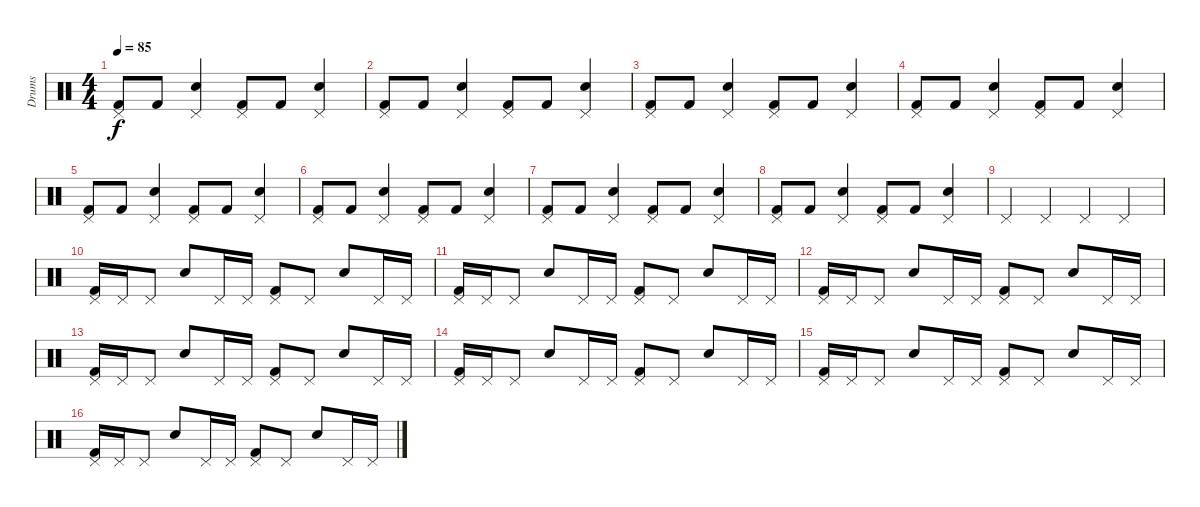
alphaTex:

\track ("Drums" "Drums") {instrument percussion}
\staff {score}
\articulation defaults
\ts (4 4)
\tempo 85
\clef neutral
\ks c
("Pedal Hi-Hat (hit)" "Kick (hit) 2").8{dy f} "Kick (hit) 2".8 ("Pedal Hi-Hat (hit)" "Snare (hit) 2").4 ("Pedal Hi-Hat (hit)" "Kick (hit) 2").8 "Kick (hit) 2".8 ("Pedal Hi-Hat (hit)" "Snare (hit) 2").4 |
("Pedal Hi-Hat (hit)" "Kick (hit) 2").8 "Kick (hit) 2".8 ("Pedal Hi-Hat (hit)" "Snare (hit) 2").4 ("Pedal Hi-Hat (hit)" "Kick (hit) 2").8 "Kick (hit) 2".8 ("Pedal Hi-Hat (hit)" "Snare (hit) 2").4 |
("Pedal Hi-Hat (hit)" "Kick (hit) 2").8 "Kick (hit) 2".8 ("Pedal Hi-Hat (hit)" "Snare (hit) 2").4 ("Pedal Hi-Hat (hit)" "Kick (hit) 2").8 "Kick (hit) 2".8 ("Pedal Hi-Hat (hit)" "Snare (hit) 2").4 |
("Pedal Hi-Hat (hit)" "Kick (hit) 2").8 "Kick (hit) 2".8 ("Pedal Hi-Hat (hit)" "Snare (hit) 2").4 ("Pedal Hi-Hat (hit)" "Kick (hit) 2").8 "Kick (hit) 2".8 ("Pedal Hi-Hat (hit)" "Snare (hit) 2").4 |
("Pedal Hi-Hat (hit)" "Kick (hit) 2").8 "Kick (hit) 2".8 ("Pedal Hi-Hat (hit)" "Snare (hit) 2").4 ("Pedal Hi-Hat (hit)" "Kick (hit) 2").8 "Kick (hit) 2".8 ("Pedal Hi-Hat (hit)" "Snare (hit) 2").4 |
("Pedal Hi-Hat (hit)" "Kick (hit) 2").8 "Kick (hit) 2".8 ("Pedal Hi-Hat (hit)" "Snare (hit) 2").4 ("Pedal Hi-Hat (hit)" "Kick (hit) 2").8 "Kick (hit) 2".8 ("Pedal Hi-Hat (hit)" "Snare (hit) 2").4 |
("Pedal Hi-Hat (hit)" "Kick (hit) 2").8 "Kick (hit) 2".8 ("Pedal Hi-Hat (hit)" "Snare (hit) 2").4 ("Pedal Hi-Hat (hit)" "Kick (hit) 2").8 "Kick (hit) 2".8 ("Pedal Hi-Hat (hit)" "Snare (hit) 2").4 |
("Pedal Hi-Hat (hit)" "Kick (hit) 2").8 "Kick (hit) 2".8 ("Pedal Hi-Hat (hit)" "Snare (hit) 2").4 ("Pedal Hi-Hat (hit)" "Kick (hit) 2").8 "Kick (hit) 2".8 ("Pedal Hi-Hat (hit)" "Snare (hit) 2").4 |
"Pedal Hi-Hat (hit)".4 "Pedal Hi-Hat (hit)".4 "Pedal Hi-Hat (hit)".4 "Pedal Hi-Hat (hit)".4 |
("Pedal Hi-Hat (hit)" "Kick (hit) 2").16 "Pedal Hi-Hat (hit)".16 "Pedal Hi-Hat (hit)".8 "Snare (hit) 2".8 "Pedal Hi-Hat (hit)".16 "Pedal Hi-Hat (hit)".16 ("Pedal Hi-Hat (hit)" "Kick (hit) 2").8 "Pedal Hi-Hat (hit)".8 "Snare (hit) 2".8 "Pedal Hi-Hat (hit)".16 "Pedal Hi-Hat (hit)".16 |
("Pedal Hi-Hat (hit)" "Kick (hit) 2").16 "Pedal Hi-Hat (hit)".16 "Pedal Hi-Hat (hit)".8 "Snare (hit) 2".8 "Pedal Hi-Hat (hit)".16 "Pedal Hi-Hat (hit)".16 ("Pedal Hi-Hat (hit)" "Kick (hit) 2").8 "Pedal Hi-Hat (hit)".8 "Snare (hit) 2".8 "Pedal Hi-Hat (hit)".16 "Pedal Hi-Hat (hit)".16 |
("Pedal Hi-Hat (hit)" "Kick (hit) 2").16 "Pedal Hi-Hat (hit)".16 "Pedal Hi-Hat (hit)".8 "Snare (hit) 2".8 "Pedal Hi-Hat (hit)".16 "Pedal Hi-Hat (hit)".16 ("Pedal Hi-Hat (hit)" "Kick (hit) 2").8 "Pedal Hi-Hat (hit)".8 "Snare (hit) 2".8 "Pedal Hi-Hat (hit)".16 "Pedal Hi-Hat (hit)".16 |
("Pedal Hi-Hat (hit)" "Kick (hit) 2").16 "Pedal Hi-Hat (hit)".16 "Pedal Hi-Hat (hit)".8 "Snare (hit) 2".8 "Pedal Hi-Hat (hit)".16 "Pedal Hi-Hat (hit)".16 ("Pedal Hi-Hat (hit)" "Kick (hit) 2").8 "Pedal Hi-Hat (hit)".8 "Snare (hit) 2".8 "Pedal Hi-Hat (hit)".16 "Pedal Hi-Hat (hit)".16 |
("Pedal Hi-Hat (hit)" "Kick (hit) 2").16 "Pedal Hi-Hat (hit)".16 "Pedal Hi-Hat (hit)".8 "Snare (hit) 2".8 "Pedal Hi-Hat (hit)".16 "Pedal Hi-Hat (hit)".16 ("Pedal Hi-Hat (hit)" "Kick (hit) 2").8 "Pedal Hi-Hat (hit)".8 "Snare (hit) 2".8 "Pedal Hi-Hat (hit)".16 "Pedal Hi-Hat (hit)".16 |
("Pedal Hi-Hat (hit)" "Kick (hit) 2").16 "Pedal Hi-Hat (hit)".16 "Pedal Hi-Hat (hit)".8 "Snare (hit) 2".8 "Pedal Hi-Hat (hit)".16 "Pedal Hi-Hat (hit)".16 ("Pedal Hi-Hat (hit)" "Kick (hit) 2").8 "Pedal Hi-Hat (hit)".8 "Snare (hit) 2".8 "Pedal Hi-Hat (hit)".16 "Pedal Hi-Hat (hit)".16 |
("Pedal Hi-Hat (hit)" "Kick (hit) 2").16 "Pedal Hi-Hat (hit)".16 "Pedal Hi-Hat (hit)".8 "Snare (hit) 2".8 "Pedal Hi-Hat (hit)".16 "Pedal Hi-Hat (hit)".16 ("Pedal Hi-Hat (hit)" "Kick (hit) 2").8 "Pedal Hi-Hat (hit)".8 "Snare (hit) 2".8 "Pedal Hi-Hat (hit)".16 "Pedal Hi-Hat (hit)".16
